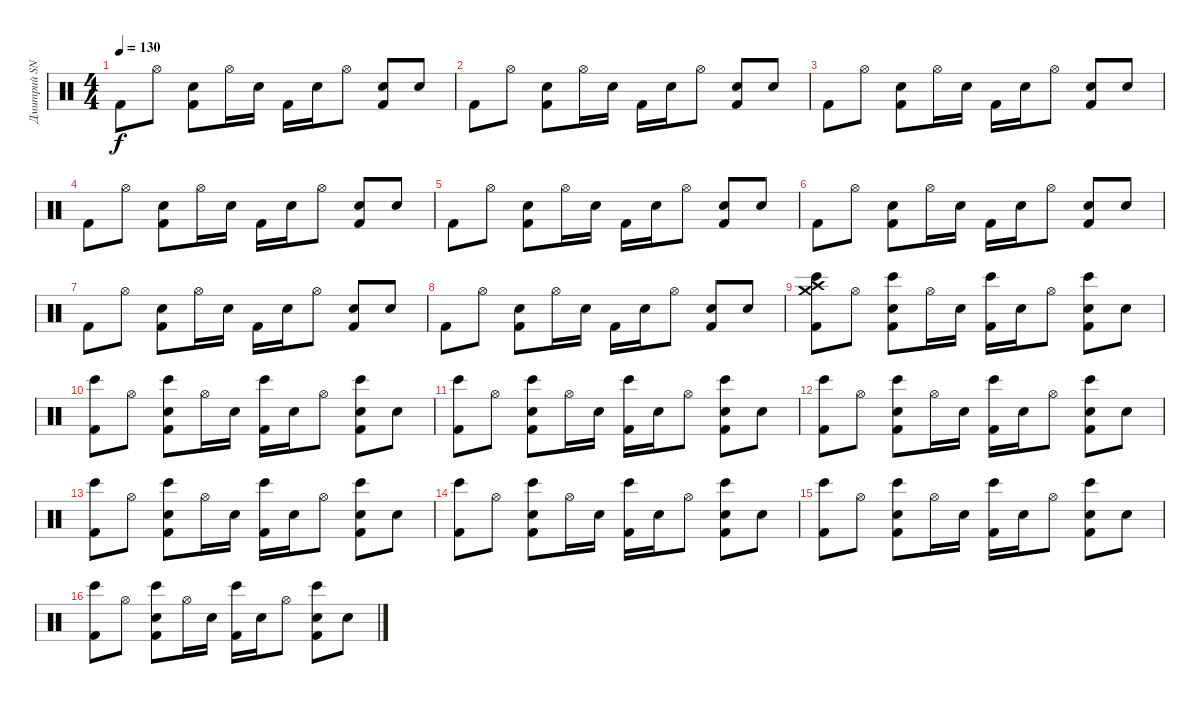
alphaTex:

\track ("Дмитрий SNAKE Хакимов (ударные)" "Дмитрий SN") {instrument percussion}
\staff {score}
\articulation defaults
\ts (4 4)
\tempo 130
\clef neutral
\ks c "Kick (hit) 2".8{dy f} "Hi-Hat (open)".8
("Snare (hit) 2" "Kick (hit) 2").8 "Hi-Hat (open)".16 "Electric Snare (hit)".16 "Kick (hit) 2".16 "Electric Snare (hit)".16 "Hi-Hat (open)".8 ("Snare (hit) 2" "Kick (hit) 2").8 "Electric Snare (hit)".8 |
"Kick (hit) 2".8 "Hi-Hat (open)".8 ("Snare (hit) 2" "Kick (hit) 2").8 "Hi-Hat (open)".16 "Electric Snare (hit)".16 "Kick (hit) 2".16 "Electric Snare (hit)".16 "Hi-Hat (open)".8 ("Snare (hit) 2" "Kick (hit) 2").8 "Electric Snare (hit)".8 |
"Kick (hit) 2".8 "Hi-Hat (open)".8 ("Snare (hit) 2" "Kick (hit) 2").8 "Hi-Hat (open)".16 "Electric Snare (hit)".16 "Kick (hit) 2".16 "Electric Snare (hit)".16 "Hi-Hat (open)".8 ("Snare (hit) 2" "Kick (hit) 2").8 "Electric Snare (hit)".8 |
"Kick (hit) 2".8 "Hi-Hat (open)".8 ("Snare (hit) 2" "Kick (hit) 2").8 "Hi-Hat (open)".16 "Electric Snare (hit)".16 "Kick (hit) 2".16 "Electric Snare (hit)".16 "Hi-Hat (open)".8 ("Snare (hit) 2" "Kick (hit) 2").8 "Electric Snare (hit)".8 |
"Kick (hit) 2".8 "Hi-Hat (open)".8 ("Snare (hit) 2" "Kick (hit) 2").8 "Hi-Hat (open)".16 "Electric Snare (hit)".16 "Kick (hit) 2".16 "Electric Snare (hit)".16 "Hi-Hat (open)".8 ("Snare (hit) 2" "Kick (hit) 2").8 "Electric Snare (hit)".8 |
"Kick (hit) 2".8 "Hi-Hat (open)".8 ("Snare (hit) 2" "Kick (hit) 2").8 "Hi-Hat (open)".16 "Electric Snare (hit)".16 "Kick (hit) 2".16 "Electric Snare (hit)".16 "Hi-Hat (open)".8 ("Snare (hit) 2" "Kick (hit) 2").8 "Electric Snare (hit)".8 |
"Kick (hit) 2".8 "Hi-Hat (open)".8 ("Snare (hit) 2" "Kick (hit) 2").8 "Hi-Hat (open)".16 "Electric Snare (hit)".16 "Kick (hit) 2".16 "Electric Snare (hit)".16 "Hi-Hat (open)".8 ("Snare (hit) 2" "Kick (hit) 2").8 "Electric Snare (hit)".8 |
"Kick (hit) 2".8 "Hi-Hat (open)".8 ("Snare (hit) 2" "Kick (hit) 2").8 "Hi-Hat (open)".16 "Electric Snare (hit)".16 "Kick (hit) 2".16 "Electric Snare (hit)".16 "Hi-Hat (open)".8 ("Snare (hit) 2" "Kick (hit) 2").8 "Electric Snare (hit)".8 |
("Crash high (hit)" "Crash medium (hit)" "Bongo High (hit)" "Kick (hit) 2").8 "Hi-Hat (open)".8 ("Snare (hit) 2" "Bongo High (hit)" "Kick (hit) 2").8 "Hi-Hat (open)".16 "Electric Snare (hit)".16 ("Bongo High (hit)" "Kick (hit) 2").16 "Electric Snare (hit)".16 "Hi-Hat (open)".8 ("Snare (hit) 2" "Bongo High (hit)" "Kick (hit) 2").8 "Electric Snare (hit)".8 |
("Bongo High (hit)" "Kick (hit) 2").8 "Hi-Hat (open)".8 ("Snare (hit) 2" "Bongo High (hit)" "Kick (hit) 2").8 "Hi-Hat (open)".16 "Electric Snare (hit)".16 ("Bongo High (hit)" "Kick (hit) 2").16 "Electric Snare (hit)".16 "Hi-Hat (open)".8 ("Snare (hit) 2" "Bongo High (hit)" "Kick (hit) 2").8 "Electric Snare (hit)".8 |
("Bongo High (hit)" "Kick (hit) 2").8 "Hi-Hat (open)".8 ("Snare (hit) 2" "Bongo High (hit)" "Kick (hit) 2").8 "Hi-Hat (open)".16 "Electric Snare (hit)".16 ("Bongo High (hit)" "Kick (hit) 2").16 "Electric Snare (hit)".16 "Hi-Hat (open)".8 ("Snare (hit) 2" "Bongo High (hit)" "Kick (hit) 2").8 "Electric Snare (hit)".8 |
("Bongo High (hit)" "Kick (hit) 2").8 "Hi-Hat (open)".8 ("Snare (hit) 2" "Bongo High (hit)" "Kick (hit) 2").8 "Hi-Hat (open)".16 "Electric Snare (hit)".16 ("Bongo High (hit)" "Kick (hit) 2").16 "Electric Snare (hit)".16 "Hi-Hat (open)".8 ("Snare (hit) 2" "Bongo High (hit)" "Kick (hit) 2").8 "Electric Snare (hit)".8 |
("Bongo High (hit)" "Kick (hit) 2").8 "Hi-Hat (open)".8 ("Snare (hit) 2" "Bongo High (hit)" "Kick (hit) 2").8 "Hi-Hat (open)".16 "Electric Snare (hit)".16 ("Bongo High (hit)" "Kick (hit) 2").16 "Electric Snare (hit)".16 "Hi-Hat (open)".8 ("Snare (hit) 2" "Bongo High (hit)" "Kick (hit) 2").8 "Electric Snare (hit)".8 |
("Bongo High (hit)" "Kick (hit) 2").8 "Hi-Hat (open)".8 ("Snare (hit) 2" "Bongo High (hit)" "Kick (hit) 2").8 "Hi-Hat (open)".16 "Electric Snare (hit)".16 ("Bongo High (hit)" "Kick (hit) 2").16 "Electric Snare (hit)".16 "Hi-Hat (open)".8 ("Snare (hit) 2" "Bongo High (hit)" "Kick (hit) 2").8 "Electric Snare (hit)".8 |
("Bongo High (hit)" "Kick (hit) 2").8 "Hi-Hat (open)".8 ("Snare (hit) 2" "Bongo High (hit)" "Kick (hit) 2").8 "Hi-Hat (open)".16 "Electric Snare (hit)".16 ("Bongo High (hit)" "Kick (hit) 2").16 "Electric Snare (hit)".16 "Hi-Hat (open)".8 ("Snare (hit) 2" "Bongo High (hit)" "Kick (hit) 2").8 "Electric Snare (hit)".8 |
("Bongo High (hit)" "Kick (hit) 2").8 "Hi-Hat (open)".8 ("Snare (hit) 2" "Bongo High (hit)" "Kick (hit) 2").8 "Hi-Hat (open)".16 "Electric Snare (hit)".16 ("Bongo High (hit)" "Kick (hit) 2").16 "Electric Snare (hit)".16 "Hi-Hat (open)".8 ("Snare (hit) 2" "Bongo High (hit)" "Kick (hit) 2").8 "Electric Snare (hit)".8
